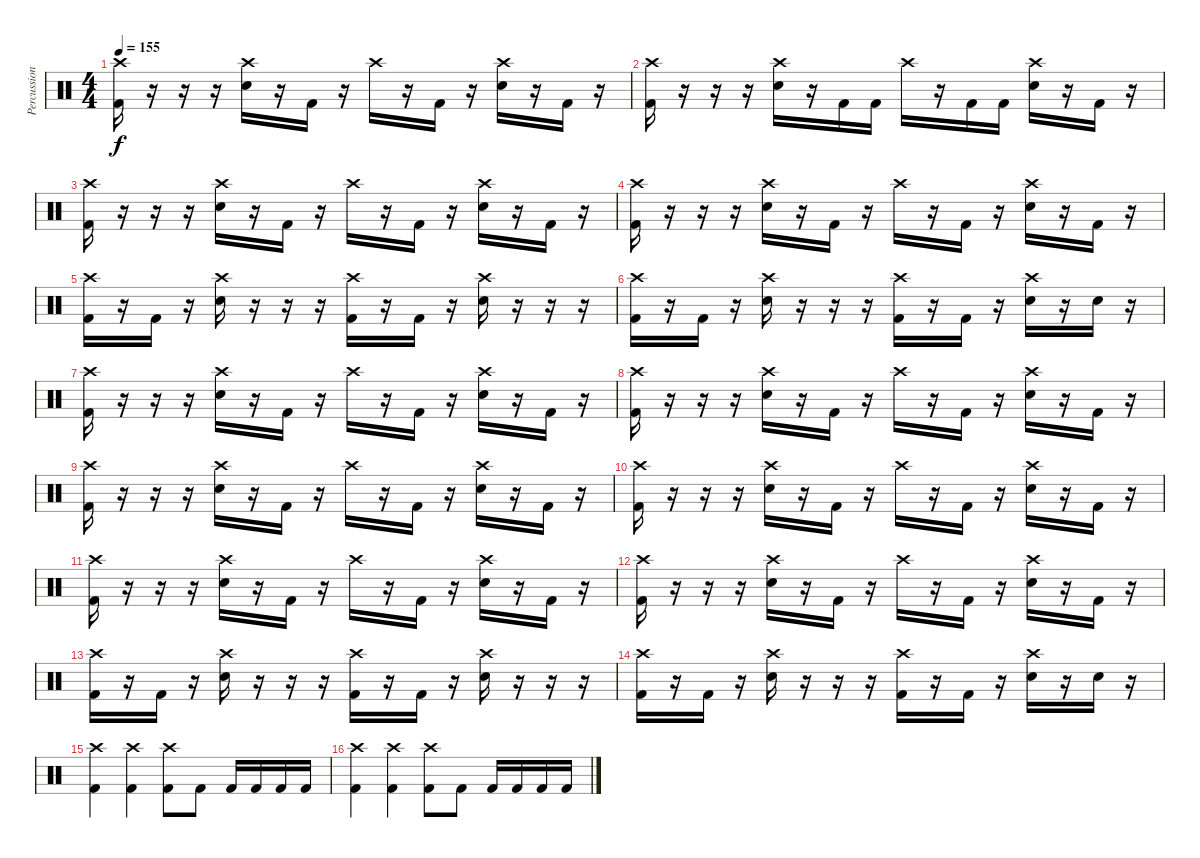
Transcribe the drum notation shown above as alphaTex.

\track ("Percussion" "Percussion") {instrument percussion}
\staff {score}
\articulation defaults
\ts (4 4)
\tempo 155
\clef neutral
\ks c
("Crash high (hit)" "Kick (hit) 2").16{dy f} r.16 r.16 r.16 ("Crash high (hit)" "Snare (hit) 2").16 r.16 "Kick (hit) 2".16 r.16 "Crash high (hit)".16 r.16 "Kick (hit) 2".16 r.16 ("Crash high (hit)" "Snare (hit) 2").16 r.16 "Kick (hit) 2".16 r.16 |
("Crash high (hit)" "Kick (hit) 2").16 r.16 r.16 r.16 ("Crash high (hit)" "Snare (hit) 2").16 r.16 "Kick (hit) 2".16 "Kick (hit) 2".16 "Crash high (hit)".16 r.16 "Kick (hit) 2".16 "Kick (hit) 2".16 ("Crash high (hit)" "Snare (hit) 2").16 r.16 "Kick (hit) 2".16 r.16 |
("Crash high (hit)" "Kick (hit) 2").16 r.16 r.16 r.16 ("Crash high (hit)" "Snare (hit) 2").16 r.16 "Kick (hit) 2".16 r.16 "Crash high (hit)".16 r.16 "Kick (hit) 2".16 r.16 ("Crash high (hit)" "Snare (hit) 2").16 r.16 "Kick (hit) 2".16 r.16 |
("Crash high (hit)" "Kick (hit) 2").16 r.16 r.16 r.16 ("Crash high (hit)" "Snare (hit) 2").16 r.16 "Kick (hit) 2".16 r.16 "Crash high (hit)".16 r.16 "Kick (hit) 2".16 r.16 ("Crash high (hit)" "Snare (hit) 2").16 r.16 "Kick (hit) 2".16 r.16 |
("Crash high (hit)" "Kick (hit) 2").16 r.16 "Kick (hit) 2".16 r.16 ("Crash high (hit)" "Snare (hit) 2").16 r.16 r.16 r.16 ("Crash high (hit)" "Kick (hit) 2").16 r.16 "Kick (hit) 2".16 r.16 ("Crash high (hit)" "Snare (hit) 2").16 r.16 r.16 r.16 |
("Crash high (hit)" "Kick (hit) 2").16 r.16 "Kick (hit) 2".16 r.16 ("Crash high (hit)" "Snare (hit) 2").16 r.16 r.16 r.16 ("Crash high (hit)" "Kick (hit) 2").16 r.16 "Kick (hit) 2".16 r.16 ("Crash high (hit)" "Snare (hit) 2").16 r.16 "Snare (hit) 2".16 r.16 |
("Crash high (hit)" "Kick (hit) 2").16 r.16 r.16 r.16 ("Crash high (hit)" "Snare (hit) 2").16 r.16 "Kick (hit) 2".16 r.16 "Crash high (hit)".16 r.16 "Kick (hit) 2".16 r.16 ("Crash high (hit)" "Snare (hit) 2").16 r.16 "Kick (hit) 2".16 r.16 |
("Crash high (hit)" "Kick (hit) 2").16 r.16 r.16 r.16 ("Crash high (hit)" "Snare (hit) 2").16 r.16 "Kick (hit) 2".16 r.16 "Crash high (hit)".16 r.16 "Kick (hit) 2".16 r.16 ("Crash high (hit)" "Snare (hit) 2").16 r.16 "Kick (hit) 2".16 r.16 |
("Crash high (hit)" "Kick (hit) 2").16 r.16 r.16 r.16 ("Crash high (hit)" "Snare (hit) 2").16 r.16 "Kick (hit) 2".16 r.16 "Crash high (hit)".16 r.16 "Kick (hit) 2".16 r.16 ("Crash high (hit)" "Snare (hit) 2").16 r.16 "Kick (hit) 2".16 r.16 |
("Crash high (hit)" "Kick (hit) 2").16 r.16 r.16 r.16 ("Crash high (hit)" "Snare (hit) 2").16 r.16 "Kick (hit) 2".16 r.16 "Crash high (hit)".16 r.16 "Kick (hit) 2".16 r.16 ("Crash high (hit)" "Snare (hit) 2").16 r.16 "Kick (hit) 2".16 r.16 |
("Crash high (hit)" "Kick (hit) 2").16 r.16 r.16 r.16 ("Crash high (hit)" "Snare (hit) 2").16 r.16 "Kick (hit) 2".16 r.16 "Crash high (hit)".16 r.16 "Kick (hit) 2".16 r.16 ("Crash high (hit)" "Snare (hit) 2").16 r.16 "Kick (hit) 2".16 r.16 |
("Crash high (hit)" "Kick (hit) 2").16 r.16 r.16 r.16 ("Crash high (hit)" "Snare (hit) 2").16 r.16 "Kick (hit) 2".16 r.16 "Crash high (hit)".16 r.16 "Kick (hit) 2".16 r.16 ("Crash high (hit)" "Snare (hit) 2").16 r.16 "Kick (hit) 2".16 r.16 |
("Crash high (hit)" "Kick (hit) 2").16 r.16 "Kick (hit) 2".16 r.16 ("Crash high (hit)" "Snare (hit) 2").16 r.16 r.16 r.16 ("Crash high (hit)" "Kick (hit) 2").16 r.16 "Kick (hit) 2".16 r.16 ("Crash high (hit)" "Snare (hit) 2").16 r.16 r.16 r.16 |
("Crash high (hit)" "Kick (hit) 2").16 r.16 "Kick (hit) 2".16 r.16 ("Crash high (hit)" "Snare (hit) 2").16 r.16 r.16 r.16 ("Crash high (hit)" "Kick (hit) 2").16 r.16 "Kick (hit) 2".16 r.16 ("Crash high (hit)" "Snare (hit) 2").16 r.16 "Snare (hit) 2".16 r.16 |
("Crash high (hit)" "Kick (hit) 2").4 ("Crash high (hit)" "Kick (hit) 2").4 ("Crash high (hit)" "Kick (hit) 2").8 "Kick (hit) 2".8 "Kick (hit) 2".16 "Kick (hit) 2".16 "Kick (hit) 2".16 "Kick (hit) 2".16 |
("Crash high (hit)" "Kick (hit) 2").4 ("Crash high (hit)" "Kick (hit) 2").4 ("Crash high (hit)" "Kick (hit) 2").8 "Kick (hit) 2".8 "Kick (hit) 2".16 "Kick (hit) 2".16 "Kick (hit) 2".16 "Kick (hit) 2".16
